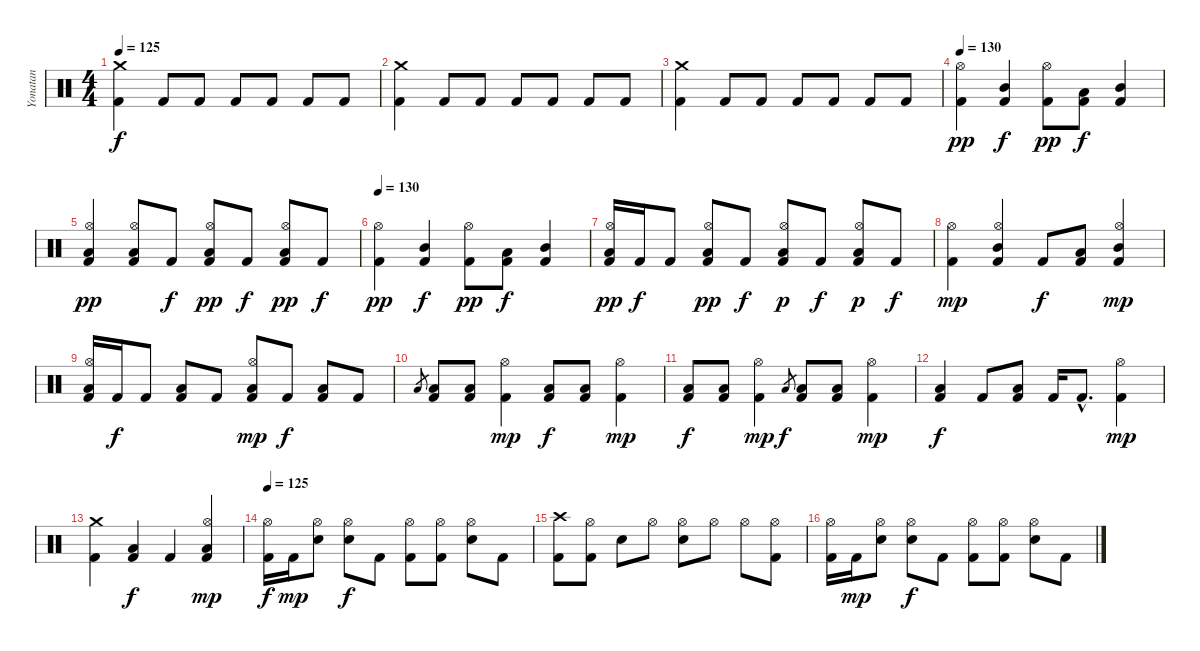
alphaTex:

\track ("Yonatan" "Yonatan") {instrument percussion}
\staff {score}
\articulation defaults
\ts (4 4)
\tempo 125
\clef neutral
\ks c
("Kick (hit) 2" "Crash medium (hit)").4{dy f} "Kick (hit) 2".8 "Kick (hit) 2".8 "Kick (hit) 2".8 "Kick (hit) 2".8 "Kick (hit) 2".8 "Kick (hit) 2".8 |
("Kick (hit) 2" "Crash medium (hit)").4 "Kick (hit) 2".8 "Kick (hit) 2".8 "Kick (hit) 2".8 "Kick (hit) 2".8 "Kick (hit) 2".8 "Kick (hit) 2".8 |
("Kick (hit) 2" "Crash medium (hit)").4 "Kick (hit) 2".8 "Kick (hit) 2".8 "Kick (hit) 2".8 "Kick (hit) 2".8 "Kick (hit) 2".8 "Kick (hit) 2".8 |
\tempo 130
("Hi-Hat (open)" "Kick (hit) 2").4{dy pp} ("Kick (hit) 2" "Mid Tom (hit)").4{dy f} ("Hi-Hat (open)" "Kick (hit) 2").8{dy pp} ("Kick (hit) 2" "Low Tom (hit)").8{dy f} ("Kick (hit) 2" "Mid Tom (hit)").4 |
("Hi-Hat (open)" "Kick (hit) 2" "Low Tom (hit)").4{dy pp} ("Hi-Hat (open)" "Kick (hit) 2" "Low Tom (hit)").8 "Kick (hit) 2".8{dy f} ("Hi-Hat (open)" "Kick (hit) 2" "Low Tom (hit)").8{dy pp} "Kick (hit) 2".8{dy f} ("Hi-Hat (open)" "Kick (hit) 2" "Low Tom (hit)").8{dy pp} "Kick (hit) 2".8{dy f} |
\tempo 130
("Hi-Hat (open)" "Kick (hit) 2").4{dy pp} ("Kick (hit) 2" "Mid Tom (hit)").4{dy f} ("Hi-Hat (open)" "Kick (hit) 2").8{dy pp} ("Kick (hit) 2" "Low Tom (hit)").8{dy f} ("Kick (hit) 2" "Mid Tom (hit)").4 |
("Hi-Hat (open)" "Kick (hit) 2" "Low Tom (hit)").16{dy pp} "Kick (hit) 2".16{dy f} "Kick (hit) 2".8 ("Hi-Hat (open)" "Kick (hit) 2" "Low Tom (hit)").8{dy pp} "Kick (hit) 2".8{dy f} ("Hi-Hat (open)" "Kick (hit) 2" "Low Tom (hit)").8{dy p} "Kick (hit) 2".8{dy f} ("Hi-Hat (open)" "Kick (hit) 2" "Low Tom (hit)").8{dy p} "Kick (hit) 2".8{dy f} |
("Hi-Hat (open)" "Kick (hit) 2").4{dy mp} ("Hi-Hat (open)" "Kick (hit) 2" "Mid Tom (hit)").4 "Kick (hit) 2".8{dy f} ("Kick (hit) 2" "Low Tom (hit)").8 ("Hi-Hat (open)" "Kick (hit) 2" "Mid Tom (hit)").4{dy mp} |
("Hi-Hat (open)" "Kick (hit) 2" "Low Tom (hit)").16 "Kick (hit) 2".16{dy f} "Kick (hit) 2".8 ("Kick (hit) 2" "Low Tom (hit)").8 "Kick (hit) 2".8 ("Hi-Hat (open)" "Kick (hit) 2" "Low Tom (hit)").8{dy mp} "Kick (hit) 2".8{dy f} ("Kick (hit) 2" "Low Tom (hit)").8 "Kick (hit) 2".8 |
"Low Tom (hit)".8{gr} ("Kick (hit) 2" "Low Tom (hit)").8 ("Kick (hit) 2" "Low Tom (hit)").8 ("Hi-Hat (open)" "Kick (hit) 2").4{dy mp} ("Kick (hit) 2" "Low Tom (hit)").8{dy f} ("Kick (hit) 2" "Low Tom (hit)").8 ("Hi-Hat (open)" "Kick (hit) 2").4{dy mp} |
("Kick (hit) 2" "Low Tom (hit)").8{dy f} ("Kick (hit) 2" "Low Tom (hit)").8 ("Hi-Hat (open)" "Kick (hit) 2").4{dy mp} "Low Tom (hit)".8{gr dy f} ("Kick (hit) 2" "Low Tom (hit)").8 ("Kick (hit) 2" "Low Tom (hit)").8 ("Hi-Hat (open)" "Kick (hit) 2").4{dy mp} |
("Kick (hit) 2" "Low Tom (hit)").4{dy f} "Kick (hit) 2".8 ("Kick (hit) 2" "Low Tom (hit)").8 "Kick (hit) 2".16 "Kick (hit) 2"{hac}.8{d} ("Hi-Hat (open)" "Kick (hit) 2").4{dy mp} |
("Crash medium (hit)" "Kick (hit) 2").4 ("Kick (hit) 2" "Low Tom (hit)").4{dy f} "Kick (hit) 2".4 ("Hi-Hat (open)" "Kick (hit) 2" "Low Tom (hit)").4{dy mp} |
\tempo 125
("Hi-Hat (open)" "Kick (hit) 2").16{dy f} "Kick (hit) 2".16{dy mp} ("Hi-Hat (open)" "Electric Snare (hit)").8 ("Hi-Hat (open)" "Electric Snare (hit)").8{dy f} "Kick (hit) 2".8 ("Hi-Hat (open)" "Kick (hit) 2").8 ("Hi-Hat (open)" "Kick (hit) 2").8 ("Hi-Hat (open)" "Electric Snare (hit)").8 "Kick (hit) 2".8 |
("Crash high (hit)" "Kick (hit) 2").8 ("Hi-Hat (open)" "Kick (hit) 2").8 "Electric Snare (hit)".8 "Hi-Hat (open)".8 ("Hi-Hat (open)" "Electric Snare (hit)").8 "Hi-Hat (open)".8 "Hi-Hat (open)".8 ("Hi-Hat (open)" "Kick (hit) 2").8 |
("Hi-Hat (open)" "Kick (hit) 2").16 "Kick (hit) 2".16{dy mp} ("Hi-Hat (open)" "Electric Snare (hit)").8 ("Hi-Hat (open)" "Electric Snare (hit)").8{dy f} "Kick (hit) 2".8 ("Hi-Hat (open)" "Kick (hit) 2").8 ("Hi-Hat (open)" "Kick (hit) 2").8 ("Hi-Hat (open)" "Electric Snare (hit)").8 "Kick (hit) 2".8
